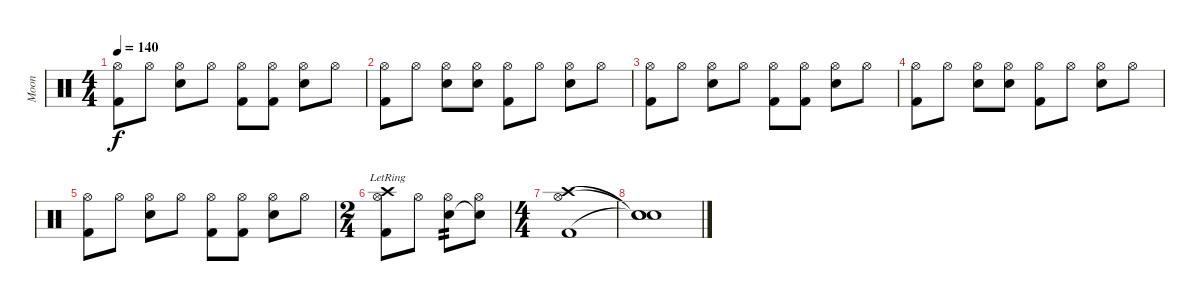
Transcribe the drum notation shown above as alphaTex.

\track ("Moon" "Moon") {instrument percussion}
\staff {score}
\articulation defaults
\ts (4 4)
\tempo 140
\clef neutral
\ks c
("Hi-Hat (open)" "Kick (hit) 2").8{dy f} "Hi-Hat (open)".8 ("Hi-Hat (open)" "Snare (hit) 2").8 "Hi-Hat (open)".8 ("Hi-Hat (open)" "Kick (hit) 2").8 ("Hi-Hat (open)" "Kick (hit) 2").8 ("Hi-Hat (open)" "Snare (hit) 2").8 "Hi-Hat (open)".8 |
("Hi-Hat (open)" "Kick (hit) 2").8 "Hi-Hat (open)".8 ("Hi-Hat (open)" "Snare (hit) 2").8 ("Hi-Hat (open)" "Snare (hit) 2").8 ("Hi-Hat (open)" "Kick (hit) 2").8 "Hi-Hat (open)".8 ("Hi-Hat (open)" "Snare (hit) 2").8 "Hi-Hat (open)".8 |
("Hi-Hat (open)" "Kick (hit) 2").8 "Hi-Hat (open)".8 ("Hi-Hat (open)" "Snare (hit) 2").8 "Hi-Hat (open)".8 ("Hi-Hat (open)" "Kick (hit) 2").8 ("Hi-Hat (open)" "Kick (hit) 2").8 ("Hi-Hat (open)" "Snare (hit) 2").8 "Hi-Hat (open)".8 |
("Hi-Hat (open)" "Kick (hit) 2").8 "Hi-Hat (open)".8 ("Hi-Hat (open)" "Snare (hit) 2").8 ("Hi-Hat (open)" "Snare (hit) 2").8 ("Hi-Hat (open)" "Kick (hit) 2").8 "Hi-Hat (open)".8 ("Hi-Hat (open)" "Snare (hit) 2").8 "Hi-Hat (open)".8 |
("Hi-Hat (open)" "Kick (hit) 2").8 "Hi-Hat (open)".8 ("Hi-Hat (open)" "Snare (hit) 2").8 "Hi-Hat (open)".8 ("Hi-Hat (open)" "Kick (hit) 2").8 ("Hi-Hat (open)" "Kick (hit) 2").8 ("Hi-Hat (open)" "Snare (hit) 2").8 "Hi-Hat (open)".8 |
\ts (2 4)
("Hi-Hat (open)" "Kick (hit) 2" "Crash high (hit)"{lr}).8 "Hi-Hat (open)".8 ("Hi-Hat (open)" "Snare (hit) 2").8{tp 2} ("Hi-Hat (open)" "Snare (hit)"{t}).8 |
\ts (4 4)
("Hi-Hat (open)" "Kick (hit) 2" "Crash high (hit)").1 |
("Snare (hit)"{t} "Snare (hit)"{t} "Snare (hit)"{t}).1
